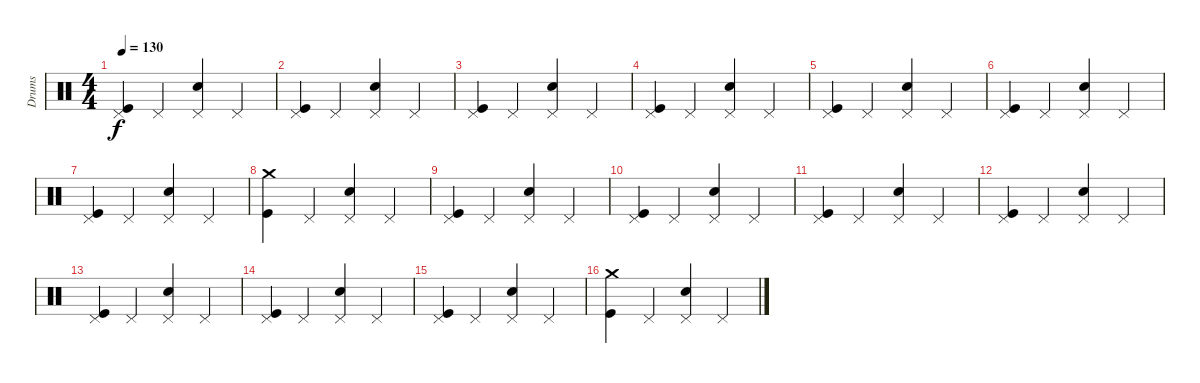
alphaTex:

\track ("Drums" "Drums") {instrument percussion}
\staff {score}
\articulation defaults
\ts (4 4)
\tempo 130
\clef neutral
\ks c
("Pedal Hi-Hat (hit)" "Kick (hit)").4{dy f} "Pedal Hi-Hat (hit)".4 ("Pedal Hi-Hat (hit)" "Snare (hit) 2").4 "Pedal Hi-Hat (hit)".4 |
("Pedal Hi-Hat (hit)" "Kick (hit)").4 "Pedal Hi-Hat (hit)".4 ("Pedal Hi-Hat (hit)" "Snare (hit) 2").4 "Pedal Hi-Hat (hit)".4 |
("Pedal Hi-Hat (hit)" "Kick (hit)").4 "Pedal Hi-Hat (hit)".4 ("Pedal Hi-Hat (hit)" "Snare (hit) 2").4 "Pedal Hi-Hat (hit)".4 |
("Pedal Hi-Hat (hit)" "Kick (hit)").4 "Pedal Hi-Hat (hit)".4 ("Pedal Hi-Hat (hit)" "Snare (hit) 2").4 "Pedal Hi-Hat (hit)".4 |
("Pedal Hi-Hat (hit)" "Kick (hit)").4 "Pedal Hi-Hat (hit)".4 ("Pedal Hi-Hat (hit)" "Snare (hit) 2").4 "Pedal Hi-Hat (hit)".4 |
("Pedal Hi-Hat (hit)" "Kick (hit)").4 "Pedal Hi-Hat (hit)".4 ("Pedal Hi-Hat (hit)" "Snare (hit) 2").4 "Pedal Hi-Hat (hit)".4 |
("Pedal Hi-Hat (hit)" "Kick (hit)").4 "Pedal Hi-Hat (hit)".4 ("Pedal Hi-Hat (hit)" "Snare (hit) 2").4 "Pedal Hi-Hat (hit)".4 |
("Kick (hit)" "Crash medium (hit)").4 "Pedal Hi-Hat (hit)".4 ("Pedal Hi-Hat (hit)" "Snare (hit) 2").4 "Pedal Hi-Hat (hit)".4 |
("Pedal Hi-Hat (hit)" "Kick (hit)").4 "Pedal Hi-Hat (hit)".4 ("Pedal Hi-Hat (hit)" "Snare (hit) 2").4 "Pedal Hi-Hat (hit)".4 |
("Pedal Hi-Hat (hit)" "Kick (hit)").4 "Pedal Hi-Hat (hit)".4 ("Pedal Hi-Hat (hit)" "Snare (hit) 2").4 "Pedal Hi-Hat (hit)".4 |
("Pedal Hi-Hat (hit)" "Kick (hit)").4 "Pedal Hi-Hat (hit)".4 ("Pedal Hi-Hat (hit)" "Snare (hit) 2").4 "Pedal Hi-Hat (hit)".4 |
("Pedal Hi-Hat (hit)" "Kick (hit)").4 "Pedal Hi-Hat (hit)".4 ("Pedal Hi-Hat (hit)" "Snare (hit) 2").4 "Pedal Hi-Hat (hit)".4 |
("Pedal Hi-Hat (hit)" "Kick (hit)").4 "Pedal Hi-Hat (hit)".4 ("Pedal Hi-Hat (hit)" "Snare (hit) 2").4 "Pedal Hi-Hat (hit)".4 |
("Pedal Hi-Hat (hit)" "Kick (hit)").4 "Pedal Hi-Hat (hit)".4 ("Pedal Hi-Hat (hit)" "Snare (hit) 2").4 "Pedal Hi-Hat (hit)".4 |
("Pedal Hi-Hat (hit)" "Kick (hit)").4 "Pedal Hi-Hat (hit)".4 ("Pedal Hi-Hat (hit)" "Snare (hit) 2").4 "Pedal Hi-Hat (hit)".4 |
("Kick (hit)" "Crash medium (hit)").4 "Pedal Hi-Hat (hit)".4 ("Pedal Hi-Hat (hit)" "Snare (hit) 2").4 "Pedal Hi-Hat (hit)".4
